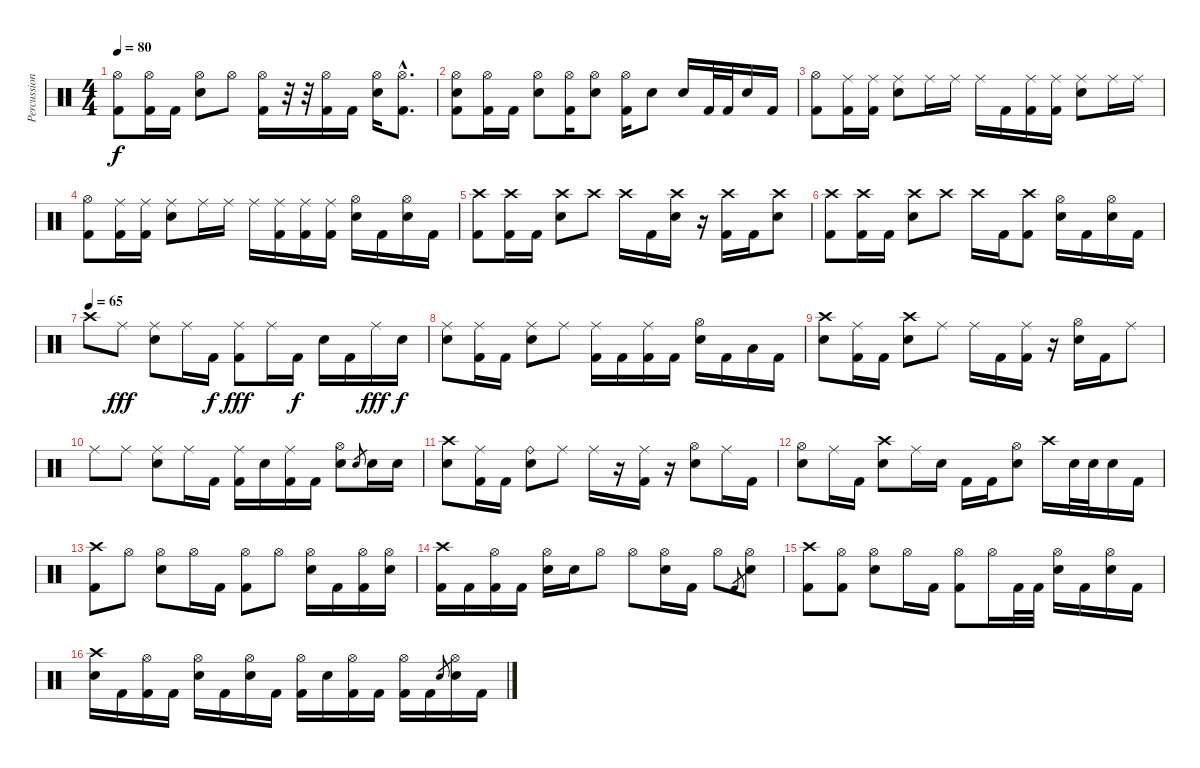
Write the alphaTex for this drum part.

\track ("Percussion" "Percussion") {instrument percussion}
\staff {score}
\articulation defaults
\ts (4 4)
\tempo 80
\clef neutral
\ks c
("Hi-Hat (open)" "Kick (hit) 2").8{dy f} ("Hi-Hat (open)" "Kick (hit) 2").16 "Kick (hit) 2".16 ("Hi-Hat (open)" "Electric Snare (hit)").8 "Hi-Hat (open)".8 ("Hi-Hat (open)" "Kick (hit) 2").16 r.32 r.32 ("Hi-Hat (open)" "Kick (hit) 2").16 "Kick (hit) 2".16 ("Hi-Hat (open)" "Electric Snare (hit)").16 ("Hi-Hat (open)"{hac} "Kick (hit) 2"{hac}).8{d} |
("Hi-Hat (open)" "Electric Snare (hit)" "Kick (hit) 2").8 ("Hi-Hat (open)" "Kick (hit) 2").16 "Kick (hit) 2".16 ("Hi-Hat (open)" "Electric Snare (hit)").8 ("Hi-Hat (open)" "Kick (hit) 2").16 ("Hi-Hat (open)" "Electric Snare (hit)").8 ("Hi-Hat (open)" "Kick (hit) 2").16 "Electric Snare (hit)".8 "Electric Snare (hit)".16 "Kick (hit) 2".32 "Kick (hit) 2".32 "Electric Snare (hit)".16 "Kick (hit) 2".16 |
("Hi-Hat (open)" "Kick (hit) 2").8 ("Ride (middle)" "Kick (hit) 2").16 ("Ride (middle)" "Kick (hit) 2").16 ("Ride (middle)" "Electric Snare (hit)").8 "Ride (middle)".16 "Ride (middle)".16 "Ride (middle)".16 "Kick (hit) 2".16 ("Ride (middle)" "Kick (hit) 2").16 ("Ride (middle)" "Kick (hit) 2").16 ("Ride (middle)" "Electric Snare (hit)").8 "Ride (middle)".16 "Ride (middle)".16 |
("Hi-Hat (open)" "Kick (hit) 2").8 ("Ride (middle)" "Kick (hit) 2").16 ("Ride (middle)" "Kick (hit) 2").16 ("Ride (middle)" "Electric Snare (hit)").8 "Ride (middle)".16 "Ride (middle)".16 "Ride (middle)".16 ("Ride (middle)" "Kick (hit) 2").16 ("Ride (middle)" "Kick (hit) 2").16 ("Ride (middle)" "Kick (hit) 2").16 ("Hi-Hat (open)" "Electric Snare (hit)").16 "Kick (hit) 2".16 ("Hi-Hat (open)" "Electric Snare (hit)").16 "Kick (hit) 2".16 |
("Crash high (hit)" "Kick (hit) 2").8 ("Crash high (hit)" "Kick (hit) 2").16 "Kick (hit) 2".16 ("Crash high (hit)" "Electric Snare (hit)").8 "Crash high (hit)".8 "Crash high (hit)".16 "Kick (hit) 2".16 ("Crash high (hit)" "Electric Snare (hit)").16 r.16 ("Crash high (hit)" "Kick (hit) 2").16 "Kick (hit) 2".16 ("Crash high (hit)" "Electric Snare (hit)").8 |
("Crash high (hit)" "Kick (hit) 2").8 ("Crash high (hit)" "Kick (hit) 2").16 "Kick (hit) 2".16 ("Crash high (hit)" "Electric Snare (hit)").8 "Crash high (hit)".8 "Crash high (hit)".16 "Kick (hit) 2".16 ("Crash high (hit)" "Kick (hit) 2").8 ("Hi-Hat (open)" "Electric Snare (hit)").16 "Kick (hit) 2".16 ("Hi-Hat (open)" "Electric Snare (hit)").16 "Kick (hit) 2".16 |
\tempo (65)
"Crash high (hit)".8 "Ride (middle)".8{dy fff} ("Ride (middle)" "Electric Snare (hit)").8 "Ride (middle)".16 "Kick (hit) 2".16{dy f} ("Ride (middle)" "Kick (hit) 2").8{dy fff} "Ride (middle)".16 "Kick (hit) 2".16{dy f} "Electric Snare (hit)".16 "Kick (hit) 2".16 "Ride (middle)".16{dy fff} "Electric Snare (hit)".16{dy f} |
("Ride (middle)" "Electric Snare (hit)").8 ("Ride (middle)" "Kick (hit) 2").16 "Kick (hit) 2".16 ("Ride (middle)" "Electric Snare (hit)").8 "Ride (middle)".8 ("Ride (middle)" "Kick (hit) 2").16 "Kick (hit) 2".16 ("Ride (middle)" "Kick (hit) 2").16 "Kick (hit) 2".16 ("Hi-Hat (open)" "Electric Snare (hit)").16 "Kick (hit) 2".16 "Low Tom (hit)".16 "Kick (hit) 2".16 |
("Crash high (hit)" "Electric Snare (hit)").8 ("Ride (middle)" "Kick (hit) 2").16 "Kick (hit) 2".16 ("Crash high (hit)" "Electric Snare (hit)").8 "Ride (middle)".8 "Ride (middle)".16 "Kick (hit) 2".16 ("Ride (middle)" "Kick (hit) 2").16 r.16 ("Hi-Hat (open)" "Electric Snare (hit)").16 "Kick (hit) 2".16 "Ride (middle)".8 |
"Ride (middle)".8 "Ride (middle)".8 ("Ride (middle)" "Electric Snare (hit)").8 "Ride (middle)".16 "Kick (hit) 2".16 ("Ride (middle)" "Kick (hit) 2").16 "Electric Snare (hit)".16 ("Ride (middle)" "Kick (hit) 2").16 "Kick (hit) 2".16 ("Hi-Hat (open)" "Electric Snare (hit)").8 "Electric Snare (hit)".8{gr} "Electric Snare (hit)".16 "Electric Snare (hit)".16 |
("Crash high (hit)" "Electric Snare (hit)").8 ("Ride (middle)" "Kick (hit) 2").16 "Kick (hit) 2".16 ("Ride (bell)" "Electric Snare (hit)").8 "Ride (middle)".8 "Ride (middle)".16 r.16 ("Ride (middle)" "Kick (hit) 2").16 r.16 ("Hi-Hat (open)" "Electric Snare (hit)").8 "Ride (middle)".16 "Kick (hit) 2".16 |
("Hi-Hat (open)" "Electric Snare (hit)").8 "Ride (middle)".16 "Kick (hit) 2".16 ("Crash high (hit)" "Electric Snare (hit)").8 "Ride (middle)".16 "Electric Snare (hit)".16 "Kick (hit) 2".16 "Kick (hit) 2".16 ("Hi-Hat (open)" "Electric Snare (hit)").8 "Crash high (hit)".16 "Electric Snare (hit)".32 "Electric Snare (hit)".32 "Electric Snare (hit)".16 "Kick (hit) 2".16 |
("Crash high (hit)" "Kick (hit) 2").8 "Hi-Hat (open)".8 ("Hi-Hat (open)" "Electric Snare (hit)").8 "Hi-Hat (open)".16 "Kick (hit) 2".16 ("Hi-Hat (open)" "Kick (hit) 2").8 "Hi-Hat (open)".8 ("Hi-Hat (open)" "Electric Snare (hit)").16 "Kick (hit) 2".16 ("Hi-Hat (open)" "Kick (hit) 2").16 ("Hi-Hat (open)" "Electric Snare (hit)").16 |
("Crash high (hit)" "Kick (hit) 2").16 "Kick (hit) 2".16 ("Hi-Hat (open)" "Kick (hit) 2").16 "Kick (hit) 2".16 ("Hi-Hat (open)" "Electric Snare (hit)").16 "Electric Snare (hit)".16 "Hi-Hat (open)".8 "Hi-Hat (open)".8 ("Hi-Hat (open)" "Electric Snare (hit)").16 "Kick (hit) 2".16 "Hi-Hat (open)".8 "Kick (hit) 2".8{gr} ("Hi-Hat (open)" "Electric Snare (hit)").8 |
("Crash high (hit)" "Kick (hit) 2").8 ("Hi-Hat (open)" "Kick (hit) 2").8 ("Hi-Hat (open)" "Electric Snare (hit)").8 "Hi-Hat (open)".16 "Kick (hit) 2".16 ("Hi-Hat (open)" "Kick (hit) 2").8 "Hi-Hat (open)".16 "Kick (hit) 2".32 "Kick (hit) 2".32 ("Hi-Hat (open)" "Electric Snare (hit)").16 "Kick (hit) 2".16 ("Hi-Hat (open)" "Electric Snare (hit)").16 "Kick (hit) 2".16 |
("Crash high (hit)" "Electric Snare (hit)").16 "Kick (hit) 2".16 ("Hi-Hat (open)" "Kick (hit) 2").16 "Kick (hit) 2".16 ("Hi-Hat (open)" "Electric Snare (hit)").16 "Kick (hit) 2".16 ("Hi-Hat (open)" "Electric Snare (hit)").16 "Kick (hit) 2".16 ("Hi-Hat (open)" "Kick (hit) 2").16 "Electric Snare (hit)".16 ("Hi-Hat (open)" "Kick (hit) 2").16 "Kick (hit) 2".16 ("Hi-Hat (open)" "Kick (hit) 2").16 "Kick (hit) 2".16 "Electric Snare (hit)".8{gr} ("Hi-Hat (open)" "Electric Snare (hit)").16 "Kick (hit) 2".16
